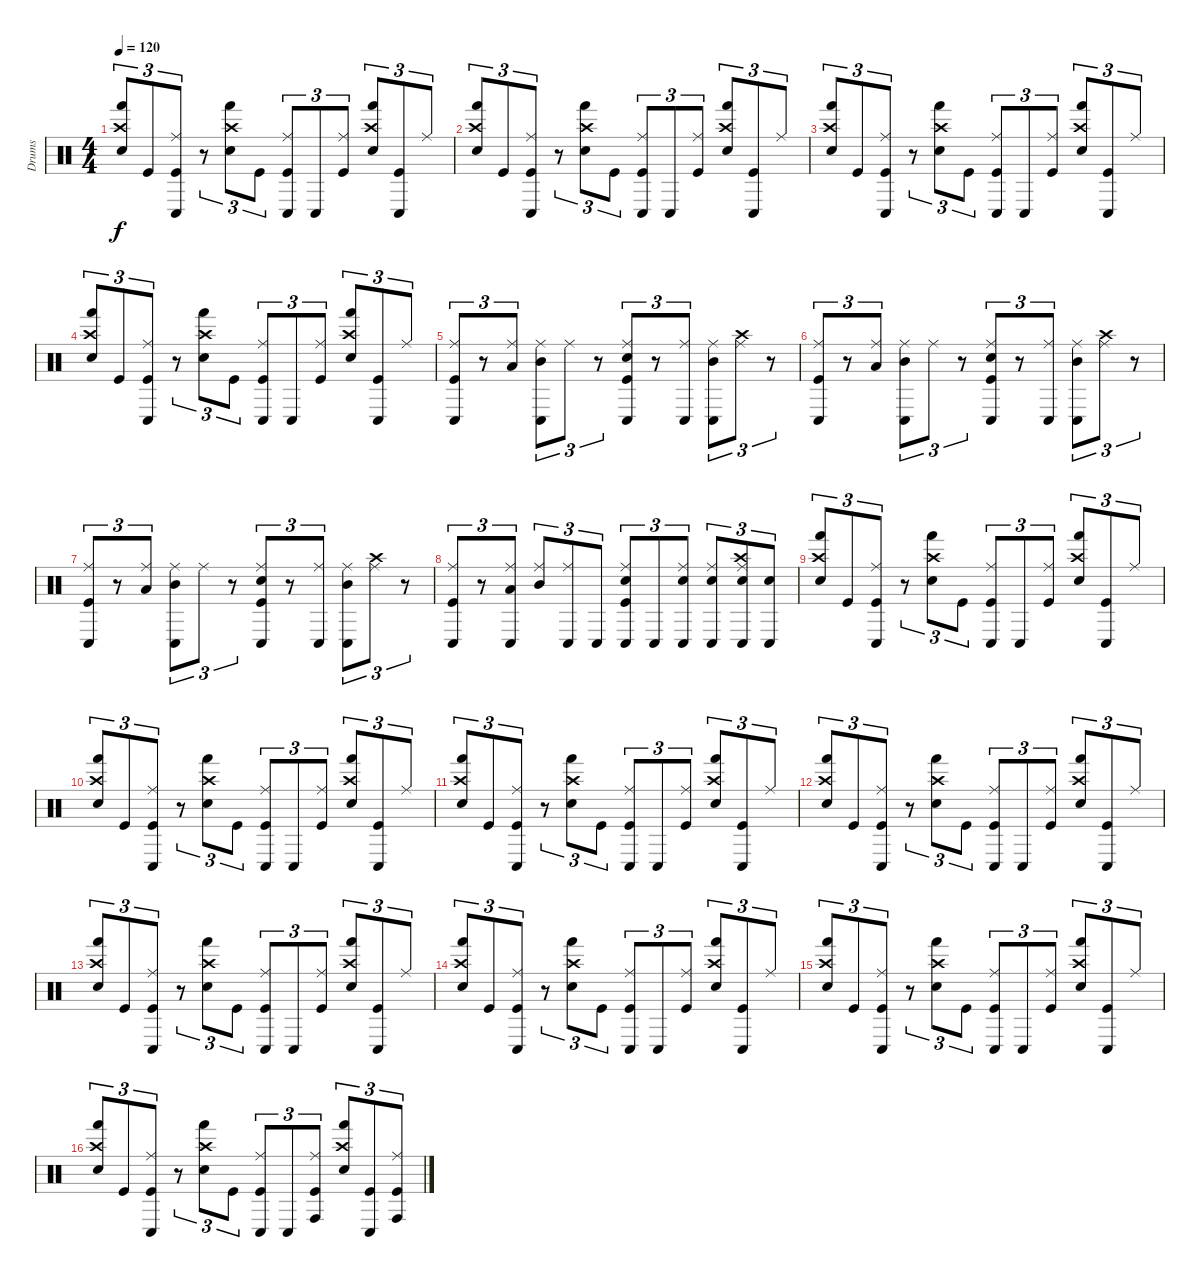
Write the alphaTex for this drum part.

\track ("Drums" "Drums") {instrument percussion}
\staff {score}
\articulation defaults
\ts (4 4)
\tempo 120
\clef neutral
\ks c
("Snare (hit) 2" "Crash high (hit)" "Hand (hit)").8{tu (3 2) dy f} "Kick (hit)".8{tu (3 2)} ("Kick (hit)" "Ride (middle)" "Conga low (hit)").8{tu (3 2)} r.8{tu (3 2)} ("Snare (hit) 2" "Crash high (hit)" "Hand (hit)").8{tu (3 2)} "Kick (hit)".8{tu (3 2)} ("Kick (hit)" "Ride (middle)" "Conga low (hit)").8{tu (3 2)} "Conga low (hit)".8{tu (3 2)} ("Kick (hit)" "Ride (middle)").8{tu (3 2)} ("Snare (hit) 2" "Crash high (hit)" "Hand (hit)").8{tu (3 2)} ("Kick (hit)" "Conga low (hit)").8{tu (3 2)} "Ride (middle)".8{tu (3 2)} |
("Snare (hit) 2" "Crash high (hit)" "Hand (hit)").8{tu (3 2)} "Kick (hit)".8{tu (3 2)} ("Kick (hit)" "Ride (middle)" "Conga low (hit)").8{tu (3 2)} r.8{tu (3 2)} ("Snare (hit) 2" "Crash high (hit)" "Hand (hit)").8{tu (3 2)} "Kick (hit)".8{tu (3 2)} ("Kick (hit)" "Ride (middle)" "Conga low (hit)").8{tu (3 2)} "Conga low (hit)".8{tu (3 2)} ("Kick (hit)" "Ride (middle)").8{tu (3 2)} ("Snare (hit) 2" "Crash high (hit)" "Hand (hit)").8{tu (3 2)} ("Kick (hit)" "Conga low (hit)").8{tu (3 2)} "Ride (middle)".8{tu (3 2)} |
("Snare (hit) 2" "Crash high (hit)" "Hand (hit)").8{tu (3 2)} "Kick (hit)".8{tu (3 2)} ("Kick (hit)" "Ride (middle)" "Conga low (hit)").8{tu (3 2)} r.8{tu (3 2)} ("Snare (hit) 2" "Crash high (hit)" "Hand (hit)").8{tu (3 2)} "Kick (hit)".8{tu (3 2)} ("Kick (hit)" "Ride (middle)" "Conga low (hit)").8{tu (3 2)} "Conga low (hit)".8{tu (3 2)} ("Kick (hit)" "Ride (middle)").8{tu (3 2)} ("Snare (hit) 2" "Crash high (hit)" "Hand (hit)").8{tu (3 2)} ("Kick (hit)" "Conga low (hit)").8{tu (3 2)} "Ride (middle)".8{tu (3 2)} |
("Snare (hit) 2" "Crash high (hit)" "Hand (hit)").8{tu (3 2)} "Kick (hit)".8{tu (3 2)} ("Kick (hit)" "Ride (middle)" "Conga low (hit)").8{tu (3 2)} r.8{tu (3 2)} ("Snare (hit) 2" "Crash high (hit)" "Hand (hit)").8{tu (3 2)} "Kick (hit)".8{tu (3 2)} ("Kick (hit)" "Ride (middle)" "Conga low (hit)").8{tu (3 2)} "Conga low (hit)".8{tu (3 2)} ("Kick (hit)" "Ride (middle)").8{tu (3 2)} ("Snare (hit) 2" "Crash high (hit)" "Hand (hit)").8{tu (3 2)} ("Kick (hit)" "Conga low (hit)").8{tu (3 2)} "Ride (middle)".8{tu (3 2)} |
("Kick (hit)" "Ride (middle)" "Conga low (hit)").8{tu (3 2)} r.8{tu (3 2)} ("Low Floor Tom (hit)" "Ride (middle)").8{tu (3 2)} ("Mid Tom (hit)" "Ride (middle)" "Conga low (hit)").8{tu (3 2)} "Ride (middle)".8{tu (3 2)} r.8{tu (3 2)} ("Kick (hit)" "Snare (hit) 2" "Ride (middle)" "Conga low (hit)").8{tu (3 2)} r.8{tu (3 2)} ("Ride (middle)" "Conga low (hit)").8{tu (3 2)} ("Mid Tom (hit)" "Ride (middle)" "Conga low (hit)").8{tu (3 2)} ("Ride (middle)" "Crash high (hit)").8{tu (3 2)} r.8{tu (3 2)} |
("Kick (hit)" "Ride (middle)" "Conga low (hit)").8{tu (3 2)} r.8{tu (3 2)} ("Low Floor Tom (hit)" "Ride (middle)").8{tu (3 2)} ("Mid Tom (hit)" "Ride (middle)" "Conga low (hit)").8{tu (3 2)} "Ride (middle)".8{tu (3 2)} r.8{tu (3 2)} ("Kick (hit)" "Snare (hit) 2" "Ride (middle)" "Conga low (hit)").8{tu (3 2)} r.8{tu (3 2)} ("Ride (middle)" "Conga low (hit)").8{tu (3 2)} ("Mid Tom (hit)" "Ride (middle)" "Conga low (hit)").8{tu (3 2)} ("Ride (middle)" "Crash high (hit)").8{tu (3 2)} r.8{tu (3 2)} |
("Kick (hit)" "Ride (middle)" "Conga low (hit)").8{tu (3 2)} r.8{tu (3 2)} ("Low Floor Tom (hit)" "Ride (middle)").8{tu (3 2)} ("Mid Tom (hit)" "Ride (middle)" "Conga low (hit)").8{tu (3 2)} "Ride (middle)".8{tu (3 2)} r.8{tu (3 2)} ("Kick (hit)" "Snare (hit) 2" "Ride (middle)" "Conga low (hit)").8{tu (3 2)} r.8{tu (3 2)} ("Ride (middle)" "Conga low (hit)").8{tu (3 2)} ("Mid Tom (hit)" "Ride (middle)" "Conga low (hit)").8{tu (3 2)} ("Ride (middle)" "Crash high (hit)").8{tu (3 2)} r.8{tu (3 2)} |
("Kick (hit)" "Ride (middle)" "Conga low (hit)").8{tu (3 2)} r.8{tu (3 2)} ("Low Floor Tom (hit)" "Ride (middle)" "Conga low (hit)").8{tu (3 2)} ("Mid Tom (hit)" "Ride (middle)").8{tu (3 2)} ("Ride (middle)" "Conga low (hit)").8{tu (3 2)} "Conga low (hit)".8{tu (3 2)} ("Kick (hit)" "Snare (hit) 2" "Ride (middle)" "Conga low (hit)").8{tu (3 2)} "Conga low (hit)".8{tu (3 2)} ("Snare (hit) 2" "Ride (middle)" "Conga low (hit)").8{tu (3 2)} ("Snare (hit) 2" "Ride (middle)" "Conga low (hit)").8{tu (3 2)} ("Snare (hit) 2" "Ride (middle)" "Crash high (hit)" "Conga low (hit)").8{tu (3 2)} ("Snare (hit) 2" "Conga low (hit)").8{tu (3 2)} |
("Snare (hit) 2" "Crash high (hit)" "Hand (hit)").8{tu (3 2)} "Kick (hit)".8{tu (3 2)} ("Kick (hit)" "Ride (middle)" "Conga low (hit)").8{tu (3 2)} r.8{tu (3 2)} ("Snare (hit) 2" "Crash high (hit)" "Hand (hit)").8{tu (3 2)} "Kick (hit)".8{tu (3 2)} ("Kick (hit)" "Ride (middle)" "Conga low (hit)").8{tu (3 2)} "Conga low (hit)".8{tu (3 2)} ("Kick (hit)" "Ride (middle)").8{tu (3 2)} ("Snare (hit) 2" "Crash high (hit)" "Hand (hit)").8{tu (3 2)} ("Kick (hit)" "Conga low (hit)").8{tu (3 2)} "Ride (middle)".8{tu (3 2)} |
("Snare (hit) 2" "Crash high (hit)" "Hand (hit)").8{tu (3 2)} "Kick (hit)".8{tu (3 2)} ("Kick (hit)" "Ride (middle)" "Conga low (hit)").8{tu (3 2)} r.8{tu (3 2)} ("Snare (hit) 2" "Crash high (hit)" "Hand (hit)").8{tu (3 2)} "Kick (hit)".8{tu (3 2)} ("Kick (hit)" "Ride (middle)" "Conga low (hit)").8{tu (3 2)} "Conga low (hit)".8{tu (3 2)} ("Kick (hit)" "Ride (middle)").8{tu (3 2)} ("Snare (hit) 2" "Crash high (hit)" "Hand (hit)").8{tu (3 2)} ("Kick (hit)" "Conga low (hit)").8{tu (3 2)} "Ride (middle)".8{tu (3 2)} |
("Snare (hit) 2" "Crash high (hit)" "Hand (hit)").8{tu (3 2)} "Kick (hit)".8{tu (3 2)} ("Kick (hit)" "Ride (middle)" "Conga low (hit)").8{tu (3 2)} r.8{tu (3 2)} ("Snare (hit) 2" "Crash high (hit)" "Hand (hit)").8{tu (3 2)} "Kick (hit)".8{tu (3 2)} ("Kick (hit)" "Ride (middle)" "Conga low (hit)").8{tu (3 2)} "Conga low (hit)".8{tu (3 2)} ("Kick (hit)" "Ride (middle)").8{tu (3 2)} ("Snare (hit) 2" "Crash high (hit)" "Hand (hit)").8{tu (3 2)} ("Kick (hit)" "Conga low (hit)").8{tu (3 2)} "Ride (middle)".8{tu (3 2)} |
("Snare (hit) 2" "Crash high (hit)" "Hand (hit)").8{tu (3 2)} "Kick (hit)".8{tu (3 2)} ("Kick (hit)" "Ride (middle)" "Conga low (hit)").8{tu (3 2)} r.8{tu (3 2)} ("Snare (hit) 2" "Crash high (hit)" "Hand (hit)").8{tu (3 2)} "Kick (hit)".8{tu (3 2)} ("Kick (hit)" "Ride (middle)" "Conga low (hit)").8{tu (3 2)} "Conga low (hit)".8{tu (3 2)} ("Kick (hit)" "Ride (middle)").8{tu (3 2)} ("Snare (hit) 2" "Crash high (hit)" "Hand (hit)").8{tu (3 2)} ("Kick (hit)" "Conga low (hit)").8{tu (3 2)} "Ride (middle)".8{tu (3 2)} |
("Snare (hit) 2" "Crash high (hit)" "Hand (hit)").8{tu (3 2)} "Kick (hit)".8{tu (3 2)} ("Kick (hit)" "Ride (middle)" "Conga low (hit)").8{tu (3 2)} r.8{tu (3 2)} ("Snare (hit) 2" "Crash high (hit)" "Hand (hit)").8{tu (3 2)} "Kick (hit)".8{tu (3 2)} ("Kick (hit)" "Ride (middle)" "Conga low (hit)").8{tu (3 2)} "Conga low (hit)".8{tu (3 2)} ("Kick (hit)" "Ride (middle)").8{tu (3 2)} ("Snare (hit) 2" "Crash high (hit)" "Hand (hit)").8{tu (3 2)} ("Kick (hit)" "Conga low (hit)").8{tu (3 2)} "Ride (middle)".8{tu (3 2)} |
("Snare (hit) 2" "Crash high (hit)" "Hand (hit)").8{tu (3 2)} "Kick (hit)".8{tu (3 2)} ("Kick (hit)" "Ride (middle)" "Conga low (hit)").8{tu (3 2)} r.8{tu (3 2)} ("Snare (hit) 2" "Crash high (hit)" "Hand (hit)").8{tu (3 2)} "Kick (hit)".8{tu (3 2)} ("Kick (hit)" "Ride (middle)" "Conga low (hit)").8{tu (3 2)} "Conga low (hit)".8{tu (3 2)} ("Kick (hit)" "Ride (middle)").8{tu (3 2)} ("Snare (hit) 2" "Crash high (hit)" "Hand (hit)").8{tu (3 2)} ("Kick (hit)" "Conga low (hit)").8{tu (3 2)} "Ride (middle)".8{tu (3 2)} |
("Snare (hit) 2" "Crash high (hit)" "Hand (hit)").8{tu (3 2)} "Kick (hit)".8{tu (3 2)} ("Kick (hit)" "Ride (middle)" "Conga low (hit)").8{tu (3 2)} r.8{tu (3 2)} ("Snare (hit) 2" "Crash high (hit)" "Hand (hit)").8{tu (3 2)} "Kick (hit)".8{tu (3 2)} ("Kick (hit)" "Ride (middle)" "Conga low (hit)").8{tu (3 2)} "Conga low (hit)".8{tu (3 2)} ("Kick (hit)" "Ride (middle)").8{tu (3 2)} ("Snare (hit) 2" "Crash high (hit)" "Hand (hit)").8{tu (3 2)} ("Kick (hit)" "Conga low (hit)").8{tu (3 2)} "Ride (middle)".8{tu (3 2)} |
("Snare (hit) 2" "Crash high (hit)" "Hand (hit)").8{tu (3 2)} "Kick (hit)".8{tu (3 2)} ("Kick (hit)" "Ride (middle)" "Conga low (hit)").8{tu (3 2)} r.8{tu (3 2)} ("Snare (hit) 2" "Crash high (hit)" "Hand (hit)").8{tu (3 2)} "Kick (hit)".8{tu (3 2)} ("Kick (hit)" "Ride (middle)" "Conga low (hit)").8{tu (3 2)} "Conga low (hit)".8{tu (3 2)} ("Kick (hit)" "Ride (middle)" "Conga high (hit)").8{tu (3 2)} ("Snare (hit) 2" "Crash high (hit)" "Hand (hit)").8{tu (3 2)} ("Kick (hit)" "Conga low (hit)").8{tu (3 2)} ("Kick (hit)" "Ride (middle)" "Conga high (hit)").8{tu (3 2)}
